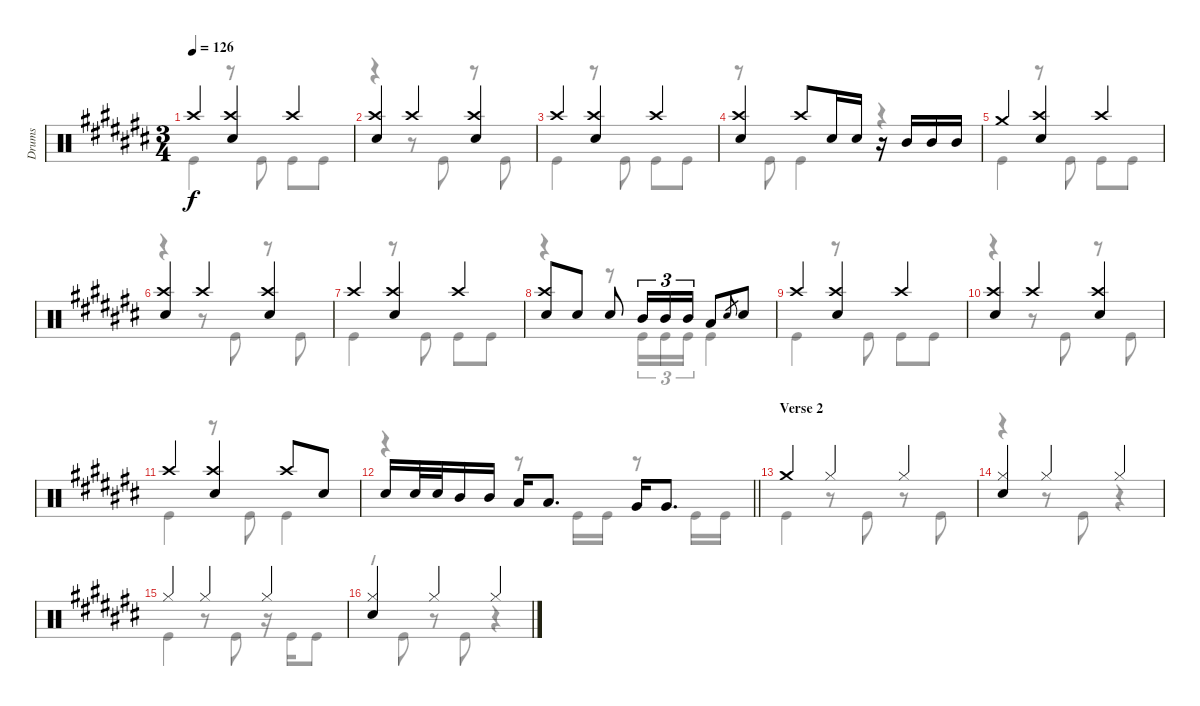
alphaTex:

\track ("Drums" "Drums") {instrument percussion}
\staff {score}
\articulation defaults
\voice
\ts (3 4)
\tempo 126
\clef neutral
\ks c# "Crash high (hit)".4{dy f}
("Crash high (hit)" "Electric Snare (hit)").4 "Crash high (hit)".4 |
("Crash high (hit)" "Electric Snare (hit)").4 "Crash high (hit)".4 ("Crash high (hit)" "Electric Snare (hit)").4 |
"Crash high (hit)".4 ("Crash high (hit)" "Electric Snare (hit)").4 "Crash high (hit)".4 |
("Crash high (hit)" "Electric Snare (hit)").4 "Crash high (hit)".8 "Electric Snare (hit)".16 "Electric Snare (hit)".16 r.16 "Mid Tom (hit)".16 "Mid Tom (hit)".16 "Mid Tom (hit)".16 |
"Crash medium (hit)".4 ("Crash high (hit)" "Electric Snare (hit)").4 "Crash high (hit)".4 |
("Crash high (hit)" "Electric Snare (hit)").4 "Crash high (hit)".4 ("Crash high (hit)" "Electric Snare (hit)").4 |
"Crash high (hit)".4 ("Crash high (hit)" "Electric Snare (hit)").4 "Crash high (hit)".4 |
("Crash high (hit)" "Electric Snare (hit)").8 "Electric Snare (hit)".8{beam split} "Electric Snare (hit)".8 "Mid Tom (hit)".16{tu (3 2)} "Mid Tom (hit)".16{tu (3 2)} "Mid Tom (hit)".16{tu (3 2) beam split} "Low Tom (hit)".8 "Electric Snare (hit)".8{gr} "Electric Snare (hit)".8 |
"Crash high (hit)".4 ("Crash high (hit)" "Electric Snare (hit)").4 "Crash high (hit)".4 |
("Crash high (hit)" "Electric Snare (hit)").4 "Crash high (hit)".4 ("Crash high (hit)" "Electric Snare (hit)").4 |
"Crash high (hit)".4 ("Crash high (hit)" "Electric Snare (hit)").4 "Crash high (hit)".8 "Electric Snare (hit)".8 |
\barLineRight lightlight "Electric Snare (hit)".16 "Electric Snare (hit)".32 "Electric Snare (hit)".32 "Mid Tom (hit)".16 "Mid Tom (hit)".16{beam split} "Low Tom (hit)".16 "Low Tom (hit)".8{d beam split} "Very Low Tom (hit)".16 "Very Low Tom (hit)".8{d}
|
\section ("" "Verse 2")
"Crash medium (hit)".4 "Hi-Hat (closed)".4 "Hi-Hat (closed)".4 |
("Hi-Hat (closed)" "Snare (hit) 2").4 "Hi-Hat (closed)".4 "Hi-Hat (closed)".4 |
"Hi-Hat (closed)".4 "Hi-Hat (closed)".4 "Hi-Hat (closed)".4 |
("Hi-Hat (closed)" "Snare (hit) 2").4 "Hi-Hat (closed)".4 "Hi-Hat (closed)".4
\voice
\clef neutral
\ottava regular
\simile none
\ks c# "Kick (hit)".4{dy f}
r.8 "Kick (hit)".8{beam split} "Kick (hit)".8 "Kick (hit)".8 |
r.4 r.8 "Kick (hit)".8{beam split} r.8 "Kick (hit)".8 |
"Kick (hit)".4 r.8 "Kick (hit)".8{beam split} "Kick (hit)".8 "Kick (hit)".8 |
r.8 "Kick (hit)".8 "Kick (hit)".4 r.4 |
"Kick (hit)".4 r.8 "Kick (hit)".8{beam split} "Kick (hit)".8 "Kick (hit)".8 |
r.4 r.8 "Kick (hit)".8{beam split} r.8 "Kick (hit)".8 |
"Kick (hit)".4 r.8 "Kick (hit)".8{beam split} "Kick (hit)".8 "Kick (hit)".8 |
r.4 r.8 "Kick (hit)".16{tu (3 2)} "Kick (hit)".16{tu (3 2)} "Kick (hit)".16{tu (3 2)} "Kick (hit)".4 |
"Kick (hit)".4 r.8 "Kick (hit)".8{beam split} "Kick (hit)".8 "Kick (hit)".8 |
r.4 r.8 "Kick (hit)".8{beam split} r.8 "Kick (hit)".8 |
"Kick (hit)".4 r.8 "Kick (hit)".8 "Kick (hit)".4 |
\barLineRight lightlight
r.4 r.8 "Kick (hit)".16 "Kick (hit)".16 r.8 "Kick (hit)".16 "Kick (hit)".16 |
"Kick (hit)".4 r.8 "Kick (hit)".8 r.8 "Kick (hit)".8 |
r.4 r.8 "Kick (hit)".8 r.4 |
"Kick (hit)".4 r.8 "Kick (hit)".8 r.16 "Kick (hit)".16 "Kick (hit)".8 |
r.8 "Kick (hit)".8 r.8 "Kick (hit)".8 r.4
